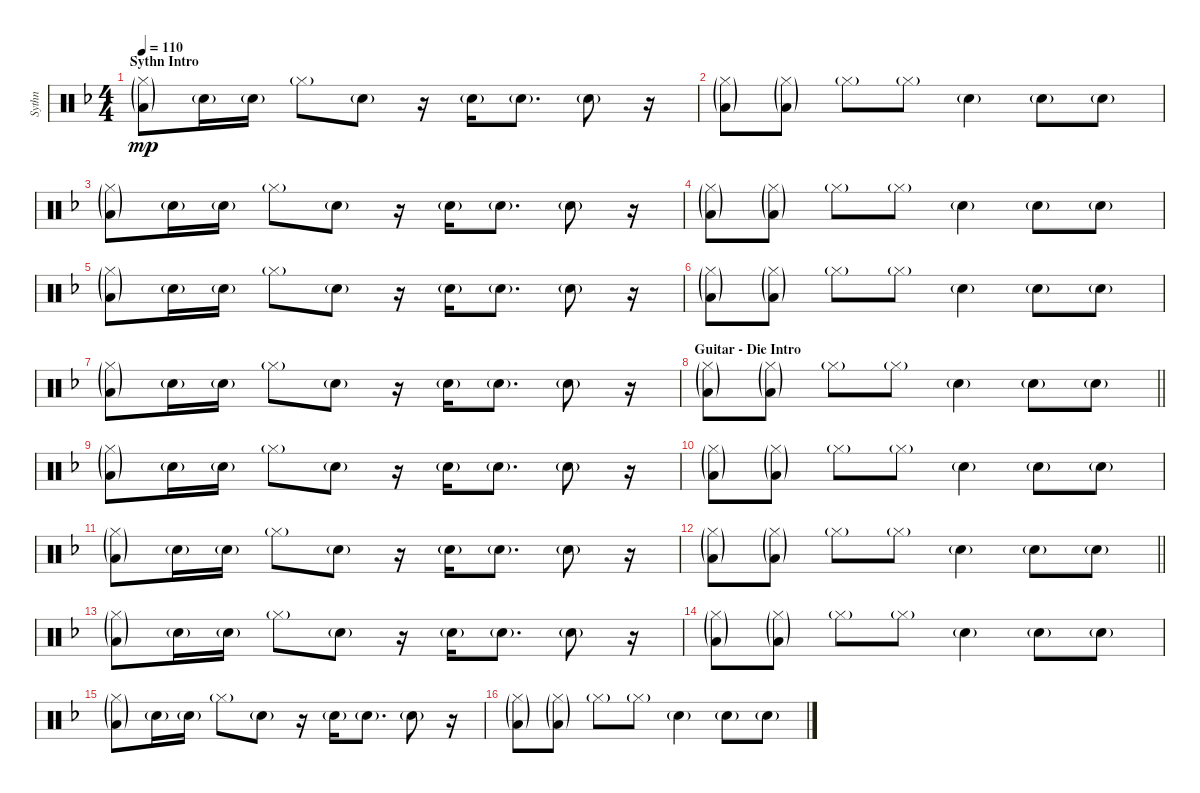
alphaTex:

\track ("Sythn" "Sythn") {instrument percussion}
\staff {score}
\articulation defaults
\ts (4 4)
\section ("" "Sythn Intro")
\tempo 110
\clef neutral
\ks f
("Hi-Hat (closed)"{g} "Low Floor Tom (hit)"{g}).8{dy mp volume 7} "Snare (hit) 2"{g}.16 "Snare (hit) 2"{g}.16 "Hi-Hat (closed)"{g}.8 "Snare (hit) 2"{g}.8 r.16 "Snare (hit) 2"{g}.16 "Snare (hit) 2"{g}.8{d} "Snare (hit) 2"{g}.8 r.16 |
("Hi-Hat (closed)"{g} "Low Floor Tom (hit)"{g}).8 ("Hi-Hat (closed)"{g} "Low Floor Tom (hit)"{g}).8 "Hi-Hat (closed)"{g}.8 "Hi-Hat (closed)"{g}.8 "Snare (hit) 2"{g}.4 "Snare (hit) 2"{g}.8 "Snare (hit) 2"{g}.8 |
("Hi-Hat (closed)"{g} "Low Floor Tom (hit)"{g}).8{volume 6} "Snare (hit) 2"{g}.16 "Snare (hit) 2"{g}.16 "Hi-Hat (closed)"{g}.8 "Snare (hit) 2"{g}.8 r.16 "Snare (hit) 2"{g}.16 "Snare (hit) 2"{g}.8{d} "Snare (hit) 2"{g}.8 r.16 |
("Hi-Hat (closed)"{g} "Low Floor Tom (hit)"{g}).8 ("Hi-Hat (closed)"{g} "Low Floor Tom (hit)"{g}).8 "Hi-Hat (closed)"{g}.8 "Hi-Hat (closed)"{g}.8 "Snare (hit) 2"{g}.4 "Snare (hit) 2"{g}.8 "Snare (hit) 2"{g}.8 |
("Hi-Hat (closed)"{g} "Low Floor Tom (hit)"{g}).8{volume 6} "Snare (hit) 2"{g}.16 "Snare (hit) 2"{g}.16 "Hi-Hat (closed)"{g}.8 "Snare (hit) 2"{g}.8 r.16 "Snare (hit) 2"{g}.16 "Snare (hit) 2"{g}.8{d} "Snare (hit) 2"{g}.8 r.16 |
("Hi-Hat (closed)"{g} "Low Floor Tom (hit)"{g}).8 ("Hi-Hat (closed)"{g} "Low Floor Tom (hit)"{g}).8 "Hi-Hat (closed)"{g}.8 "Hi-Hat (closed)"{g}.8 "Snare (hit) 2"{g}.4 "Snare (hit) 2"{g}.8 "Snare (hit) 2"{g}.8 |
("Hi-Hat (closed)"{g} "Low Floor Tom (hit)"{g}).8{volume 6} "Snare (hit) 2"{g}.16 "Snare (hit) 2"{g}.16 "Hi-Hat (closed)"{g}.8 "Snare (hit) 2"{g}.8 r.16 "Snare (hit) 2"{g}.16 "Snare (hit) 2"{g}.8{d} "Snare (hit) 2"{g}.8 r.16 |
\section ("" "Guitar - Die Intro")
\barLineRight lightlight
("Hi-Hat (closed)"{g} "Low Floor Tom (hit)"{g}).8 ("Hi-Hat (closed)"{g} "Low Floor Tom (hit)"{g}).8 "Hi-Hat (closed)"{g}.8 "Hi-Hat (closed)"{g}.8 "Snare (hit) 2"{g}.4 "Snare (hit) 2"{g}.8 "Snare (hit) 2"{g}.8 |
("Hi-Hat (closed)"{g} "Low Floor Tom (hit)"{g}).8{volume 6} "Snare (hit) 2"{g}.16 "Snare (hit) 2"{g}.16 "Hi-Hat (closed)"{g}.8 "Snare (hit) 2"{g}.8 r.16 "Snare (hit) 2"{g}.16 "Snare (hit) 2"{g}.8{d} "Snare (hit) 2"{g}.8 r.16 |
("Hi-Hat (closed)"{g} "Low Floor Tom (hit)"{g}).8 ("Hi-Hat (closed)"{g} "Low Floor Tom (hit)"{g}).8 "Hi-Hat (closed)"{g}.8 "Hi-Hat (closed)"{g}.8 "Snare (hit) 2"{g}.4 "Snare (hit) 2"{g}.8 "Snare (hit) 2"{g}.8 |
("Hi-Hat (closed)"{g} "Low Floor Tom (hit)"{g}).8{volume 6} "Snare (hit) 2"{g}.16 "Snare (hit) 2"{g}.16 "Hi-Hat (closed)"{g}.8 "Snare (hit) 2"{g}.8 r.16 "Snare (hit) 2"{g}.16 "Snare (hit) 2"{g}.8{d} "Snare (hit) 2"{g}.8 r.16 |
\barLineRight lightlight
("Hi-Hat (closed)"{g} "Low Floor Tom (hit)"{g}).8 ("Hi-Hat (closed)"{g} "Low Floor Tom (hit)"{g}).8 "Hi-Hat (closed)"{g}.8 "Hi-Hat (closed)"{g}.8 "Snare (hit) 2"{g}.4 "Snare (hit) 2"{g}.8 "Snare (hit) 2"{g}.8 |
("Hi-Hat (closed)"{g} "Low Floor Tom (hit)"{g}).8{volume 6} "Snare (hit) 2"{g}.16 "Snare (hit) 2"{g}.16 "Hi-Hat (closed)"{g}.8 "Snare (hit) 2"{g}.8 r.16 "Snare (hit) 2"{g}.16 "Snare (hit) 2"{g}.8{d} "Snare (hit) 2"{g}.8 r.16 |
("Hi-Hat (closed)"{g} "Low Floor Tom (hit)"{g}).8 ("Hi-Hat (closed)"{g} "Low Floor Tom (hit)"{g}).8 "Hi-Hat (closed)"{g}.8 "Hi-Hat (closed)"{g}.8 "Snare (hit) 2"{g}.4 "Snare (hit) 2"{g}.8 "Snare (hit) 2"{g}.8 |
("Hi-Hat (closed)"{g} "Low Floor Tom (hit)"{g}).8{volume 6} "Snare (hit) 2"{g}.16 "Snare (hit) 2"{g}.16 "Hi-Hat (closed)"{g}.8 "Snare (hit) 2"{g}.8 r.16 "Snare (hit) 2"{g}.16 "Snare (hit) 2"{g}.8{d} "Snare (hit) 2"{g}.8 r.16 |
("Hi-Hat (closed)"{g} "Low Floor Tom (hit)"{g}).8 ("Hi-Hat (closed)"{g} "Low Floor Tom (hit)"{g}).8 "Hi-Hat (closed)"{g}.8 "Hi-Hat (closed)"{g}.8 "Snare (hit) 2"{g}.4 "Snare (hit) 2"{g}.8 "Snare (hit) 2"{g}.8
